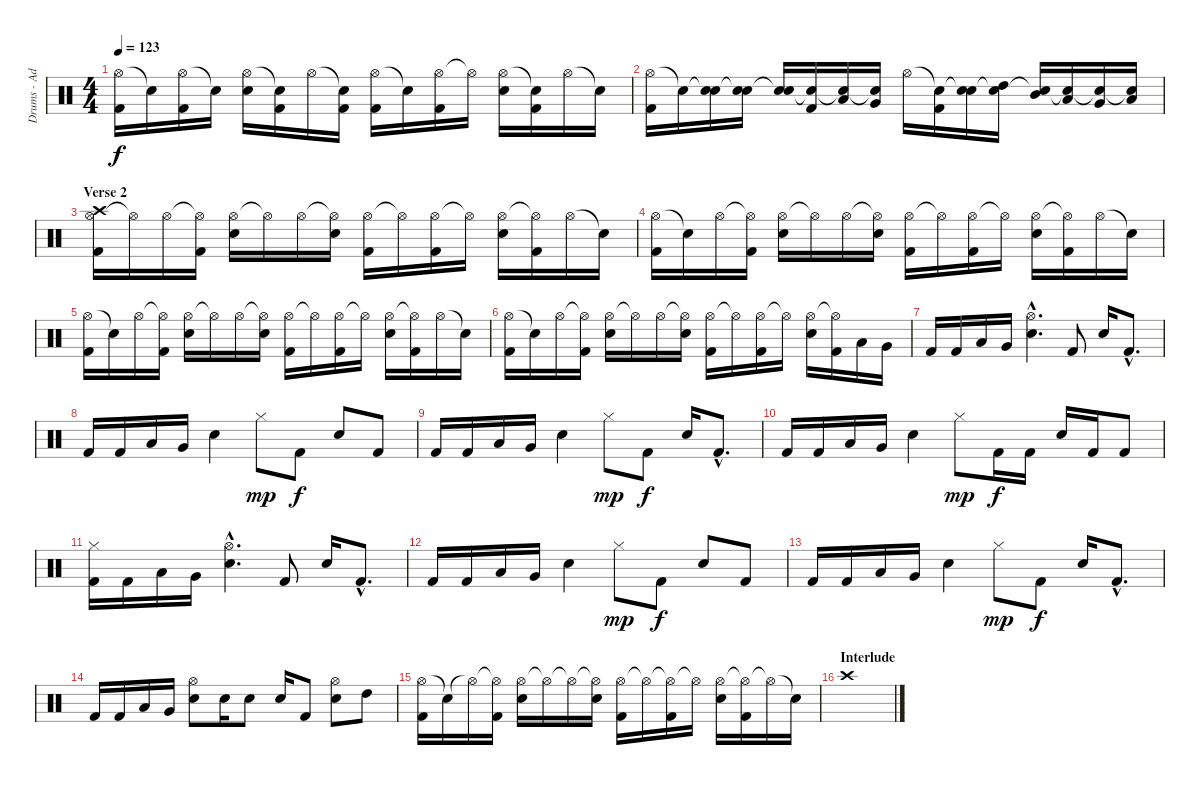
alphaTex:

\track ("Drums - Adam" "Drums - Ad") {instrument percussion}
\staff {score}
\articulation defaults
\ts (4 4)
\tempo 123
\clef neutral
\ks c
("Hi-Hat (open)" "Kick (hit) 2").16{dy f} "Snare (hit)"{t}.16 ("Hi-Hat (open)" "Kick (hit) 2").16 "Snare (hit)"{t}.16 ("Hi-Hat (open)" "Electric Snare (hit)").16 ("Snare (hit)"{t} "Kick (hit) 2").16 "Hi-Hat (open)".16 ("Snare (hit)"{t} "Kick (hit) 2").16 ("Hi-Hat (open)" "Kick (hit) 2").16 "Snare (hit)"{t}.16 ("Hi-Hat (open)" "Kick (hit) 2").16 "Hi-Hat (open)"{t}.16 ("Hi-Hat (open)" "Electric Snare (hit)").16 ("Snare (hit)"{t} "Kick (hit) 2").16 "Hi-Hat (open)".16 "Snare (hit)"{t}.16 |
("Hi-Hat (open)" "Kick (hit) 2").16 "Snare (hit)"{t}.16 ("Snare (hit)"{t} "Electric Snare (hit)").16 ("Snare (hit)"{t} "Electric Snare (hit)").16 ("Snare (hit)"{t} "Electric Snare (hit)").16 ("Snare (hit)"{t} "Kick (hit) 2").16 ("Snare (hit)"{t} "Low Tom (hit)").16 ("Snare (hit)"{t} "Very Low Tom (hit)").16 "Hi-Hat (open)".16 ("Snare (hit)"{t} "Kick (hit) 2").16 ("Snare (hit)"{t} "Electric Snare (hit)").16 ("Snare (hit)"{t} "High Tom (hit)").16 ("Snare (hit)"{t} "Mid Tom (hit)").16 ("Snare (hit)"{t} "Low Tom (hit)").16 ("Snare (hit)"{t} "Very Low Tom (hit)").16 ("Snare (hit)"{t} "Low Floor Tom (hit)").16 |
\section ("" "Verse 2")
("Hi-Hat (open)" "Kick (hit) 2" "Crash high (hit)").16 "Hi-Hat (open)"{t}.16 "Hi-Hat (open)".16 ("Hi-Hat (open)"{t} "Kick (hit) 2").16 ("Hi-Hat (open)" "Electric Snare (hit)").16 "Hi-Hat (open)"{t}.16 "Hi-Hat (open)".16 ("Hi-Hat (open)"{t} "Electric Snare (hit)").16 ("Hi-Hat (open)" "Kick (hit) 2").16 "Hi-Hat (open)"{t}.16 ("Hi-Hat (open)" "Kick (hit) 2").16 "Hi-Hat (open)"{t}.16 ("Hi-Hat (open)" "Electric Snare (hit)").16 ("Hi-Hat (open)"{t} "Kick (hit) 2").16 "Hi-Hat (open)".16 "Snare (hit)"{t}.16 |
("Hi-Hat (open)" "Kick (hit) 2").16 "Snare (hit)"{t}.16 "Hi-Hat (open)".16 ("Hi-Hat (open)"{t} "Kick (hit) 2").16 ("Hi-Hat (open)" "Electric Snare (hit)").16 "Hi-Hat (open)"{t}.16 "Hi-Hat (open)".16 ("Hi-Hat (open)"{t} "Electric Snare (hit)").16 ("Hi-Hat (open)" "Kick (hit) 2").16 "Hi-Hat (open)"{t}.16 ("Hi-Hat (open)" "Kick (hit) 2").16 "Hi-Hat (open)"{t}.16 ("Hi-Hat (open)" "Electric Snare (hit)").16 ("Hi-Hat (open)"{t} "Kick (hit) 2").16 "Hi-Hat (open)".16 "Snare (hit)"{t}.16 |
("Hi-Hat (open)" "Kick (hit) 2").16 "Snare (hit)"{t}.16 "Hi-Hat (open)".16 ("Hi-Hat (open)"{t} "Kick (hit) 2").16 ("Hi-Hat (open)" "Electric Snare (hit)").16 "Hi-Hat (open)"{t}.16 "Hi-Hat (open)".16 ("Hi-Hat (open)"{t} "Electric Snare (hit)").16 ("Hi-Hat (open)" "Kick (hit) 2").16 "Hi-Hat (open)"{t}.16 ("Hi-Hat (open)" "Kick (hit) 2").16 "Hi-Hat (open)"{t}.16 ("Hi-Hat (open)" "Electric Snare (hit)").16 ("Hi-Hat (open)"{t} "Kick (hit) 2").16 "Hi-Hat (open)".16 "Snare (hit)"{t}.16 |
("Hi-Hat (open)" "Kick (hit) 2").16 "Snare (hit)"{t}.16 "Hi-Hat (open)".16 ("Hi-Hat (open)"{t} "Kick (hit) 2").16 ("Hi-Hat (open)" "Electric Snare (hit)").16 "Hi-Hat (open)"{t}.16 "Hi-Hat (open)".16 ("Hi-Hat (open)"{t} "Electric Snare (hit)").16 ("Hi-Hat (open)" "Kick (hit) 2").16 "Hi-Hat (open)"{t}.16 ("Hi-Hat (open)" "Kick (hit) 2").16 "Hi-Hat (open)"{t}.16 ("Hi-Hat (open)" "Electric Snare (hit)").16 ("Hi-Hat (open)"{t} "Kick (hit) 2").16 "Low Tom (hit)".16 "Very Low Tom (hit)".16 |
"Kick (hit) 2".16 "Kick (hit) 2".16 "Low Tom (hit)".16 "Very Low Tom (hit)".16 ("Hi-Hat (open)"{hac} "Electric Snare (hit)"{hac}).4{d} "Kick (hit) 2".8 "Electric Snare (hit)".16 "Kick (hit) 2"{hac}.8{d} |
"Kick (hit) 2".16 "Kick (hit) 2".16 "Low Tom (hit)".16 "Very Low Tom (hit)".16 "Electric Snare (hit)".4 "Hi-Hat (closed)".8{dy mp} "Kick (hit) 2".8{dy f} "Electric Snare (hit)".8 "Kick (hit) 2".8 |
"Kick (hit) 2".16 "Kick (hit) 2".16 "Low Tom (hit)".16 "Very Low Tom (hit)".16 "Electric Snare (hit)".4 "Hi-Hat (closed)".8{dy mp} "Kick (hit) 2".8{dy f} "Electric Snare (hit)".16 "Kick (hit) 2"{hac}.8{d} |
"Kick (hit) 2".16 "Kick (hit) 2".16 "Low Tom (hit)".16 "Very Low Tom (hit)".16 "Electric Snare (hit)".4 "Hi-Hat (closed)".8{dy mp} "Kick (hit) 2".16{dy f} "Kick (hit) 2".16 "Electric Snare (hit)".16 "Kick (hit) 2".16 "Kick (hit) 2".8 |
("Hi-Hat (closed)" "Kick (hit) 2").16 "Kick (hit) 2".16 "Low Tom (hit)".16 "Very Low Tom (hit)".16 ("Hi-Hat (open)"{hac} "Electric Snare (hit)"{hac}).4{d} "Kick (hit) 2".8 "Electric Snare (hit)".16 "Kick (hit) 2"{hac}.8{d} |
"Kick (hit) 2".16 "Kick (hit) 2".16 "Low Tom (hit)".16 "Very Low Tom (hit)".16 "Electric Snare (hit)".4 "Hi-Hat (closed)".8{dy mp} "Kick (hit) 2".8{dy f} "Electric Snare (hit)".8 "Kick (hit) 2".8 |
"Kick (hit) 2".16 "Kick (hit) 2".16 "Low Tom (hit)".16 "Very Low Tom (hit)".16 "Electric Snare (hit)".4 "Hi-Hat (closed)".8{dy mp} "Kick (hit) 2".8{dy f} "Electric Snare (hit)".16 "Kick (hit) 2"{hac}.8{d} |
"Kick (hit) 2".16 "Kick (hit) 2".16 "Low Tom (hit)".16 "Very Low Tom (hit)".16 ("Hi-Hat (open)" "Electric Snare (hit)").8 "Electric Snare (hit)".16 "Electric Snare (hit)".8 "Electric Snare (hit)".16 "Kick (hit) 2".8 ("Hi-Hat (open)" "Electric Snare (hit)").8 "High Tom (hit)".8 |
("Hi-Hat (open)" "Kick (hit) 2").16 "Snare (hit)"{t}.16 "Hi-Hat (open)"{t}.16 ("Hi-Hat (open)"{t} "Kick (hit) 2").16 ("Hi-Hat (open)" "Electric Snare (hit)").16 "Hi-Hat (open)"{t}.16 "Hi-Hat (open)"{t}.16 ("Hi-Hat (open)"{t} "Electric Snare (hit)").16 ("Hi-Hat (open)" "Kick (hit) 2").16 "Hi-Hat (open)"{t}.16 ("Hi-Hat (open)"{t} "Kick (hit) 2").16 "Hi-Hat (open)"{t}.16 ("Hi-Hat (open)" "Electric Snare (hit)").16 ("Hi-Hat (open)"{t} "Kick (hit) 2").16 "Hi-Hat (open)"{t}.16 "Snare (hit)"{t}.16 |
\section ("" "Interlude")
"Crash high (hit)".1
